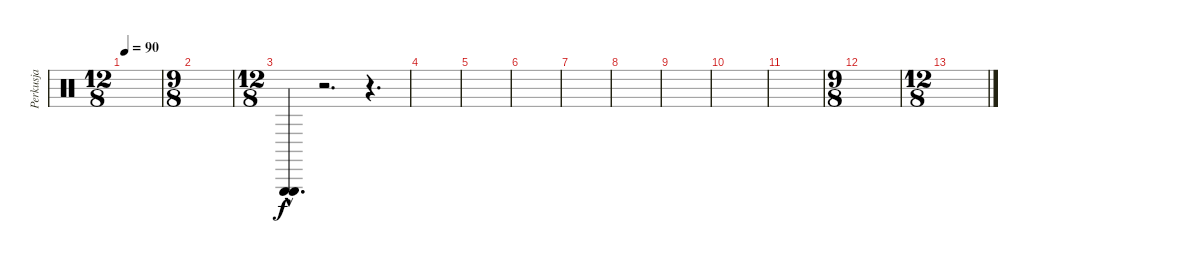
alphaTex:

\track ("Perkusja" "Perkusja") {instrument percussion}
\staff {score}
\articulation defaults
\ts (12 8)
\tempo 90
\clef neutral
\ks c
|
\ts (9 8)
|
\ts (12 8)
("Triangle (hit)"{hac} "Triangle (hit)"{hac}).4{d} r.2{d} r.4{d} |
|
|
|
|
|
|
|
|
\ts (9 8)
|
\ts (12 8)
